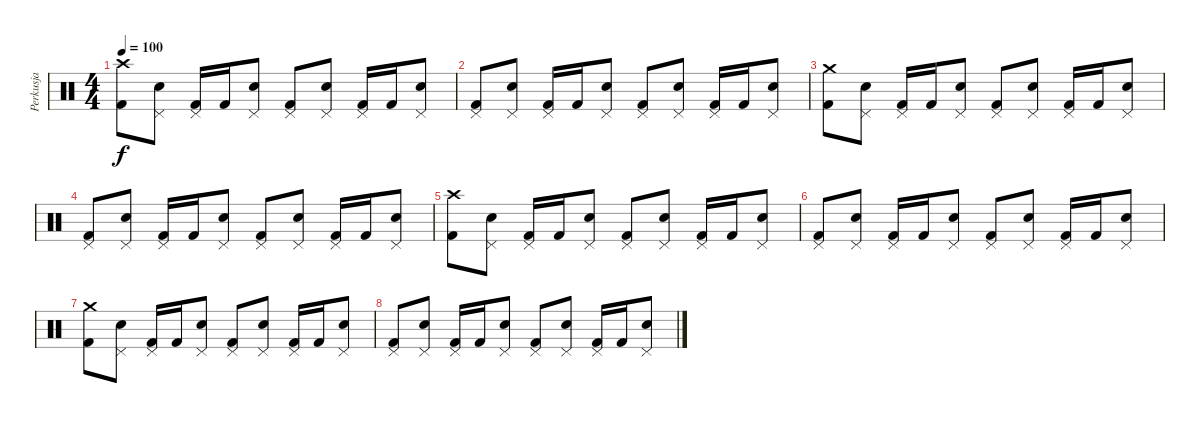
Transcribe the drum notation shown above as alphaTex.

\track ("Perkusja" "Perkusja") {instrument percussion}
\staff {score}
\articulation defaults
\ts (4 4)
\tempo 100
\clef neutral
\ks c
("Crash high (hit)" "Kick (hit) 2").8{dy f} ("Pedal Hi-Hat (hit)" "Snare (hit) 2").8 ("Pedal Hi-Hat (hit)" "Kick (hit) 2").16 "Kick (hit) 2".16 ("Pedal Hi-Hat (hit)" "Snare (hit) 2").8 ("Pedal Hi-Hat (hit)" "Kick (hit) 2").8 ("Pedal Hi-Hat (hit)" "Snare (hit) 2").8 ("Pedal Hi-Hat (hit)" "Kick (hit) 2").16 "Kick (hit) 2".16 ("Pedal Hi-Hat (hit)" "Snare (hit) 2").8 |
("Pedal Hi-Hat (hit)" "Kick (hit) 2").8 ("Pedal Hi-Hat (hit)" "Snare (hit) 2").8 ("Pedal Hi-Hat (hit)" "Kick (hit) 2").16 "Kick (hit) 2".16 ("Pedal Hi-Hat (hit)" "Snare (hit) 2").8 ("Pedal Hi-Hat (hit)" "Kick (hit) 2").8 ("Pedal Hi-Hat (hit)" "Snare (hit) 2").8 ("Pedal Hi-Hat (hit)" "Kick (hit) 2").16 "Kick (hit) 2".16 ("Pedal Hi-Hat (hit)" "Snare (hit) 2").8 |
("Crash medium (hit)" "Kick (hit) 2").8 ("Pedal Hi-Hat (hit)" "Snare (hit) 2").8 ("Pedal Hi-Hat (hit)" "Kick (hit) 2").16 "Kick (hit) 2".16 ("Pedal Hi-Hat (hit)" "Snare (hit) 2").8 ("Pedal Hi-Hat (hit)" "Kick (hit) 2").8 ("Pedal Hi-Hat (hit)" "Snare (hit) 2").8 ("Pedal Hi-Hat (hit)" "Kick (hit) 2").16 "Kick (hit) 2".16 ("Pedal Hi-Hat (hit)" "Snare (hit) 2").8 |
("Pedal Hi-Hat (hit)" "Kick (hit) 2").8 ("Pedal Hi-Hat (hit)" "Snare (hit) 2").8 ("Pedal Hi-Hat (hit)" "Kick (hit) 2").16 "Kick (hit) 2".16 ("Pedal Hi-Hat (hit)" "Snare (hit) 2").8 ("Pedal Hi-Hat (hit)" "Kick (hit) 2").8 ("Pedal Hi-Hat (hit)" "Snare (hit) 2").8 ("Pedal Hi-Hat (hit)" "Kick (hit) 2").16 "Kick (hit) 2".16 ("Pedal Hi-Hat (hit)" "Snare (hit) 2").8 |
("Crash high (hit)" "Kick (hit) 2").8 ("Pedal Hi-Hat (hit)" "Snare (hit) 2").8 ("Pedal Hi-Hat (hit)" "Kick (hit) 2").16 "Kick (hit) 2".16 ("Pedal Hi-Hat (hit)" "Snare (hit) 2").8 ("Pedal Hi-Hat (hit)" "Kick (hit) 2").8 ("Pedal Hi-Hat (hit)" "Snare (hit) 2").8 ("Pedal Hi-Hat (hit)" "Kick (hit) 2").16 "Kick (hit) 2".16 ("Pedal Hi-Hat (hit)" "Snare (hit) 2").8 |
("Pedal Hi-Hat (hit)" "Kick (hit) 2").8 ("Pedal Hi-Hat (hit)" "Snare (hit) 2").8 ("Pedal Hi-Hat (hit)" "Kick (hit) 2").16 "Kick (hit) 2".16 ("Pedal Hi-Hat (hit)" "Snare (hit) 2").8 ("Pedal Hi-Hat (hit)" "Kick (hit) 2").8 ("Pedal Hi-Hat (hit)" "Snare (hit) 2").8 ("Pedal Hi-Hat (hit)" "Kick (hit) 2").16 "Kick (hit) 2".16 ("Pedal Hi-Hat (hit)" "Snare (hit) 2").8 |
("Crash medium (hit)" "Kick (hit) 2").8 ("Pedal Hi-Hat (hit)" "Snare (hit) 2").8 ("Pedal Hi-Hat (hit)" "Kick (hit) 2").16 "Kick (hit) 2".16 ("Pedal Hi-Hat (hit)" "Snare (hit) 2").8 ("Pedal Hi-Hat (hit)" "Kick (hit) 2").8 ("Pedal Hi-Hat (hit)" "Snare (hit) 2").8 ("Pedal Hi-Hat (hit)" "Kick (hit) 2").16 "Kick (hit) 2".16 ("Pedal Hi-Hat (hit)" "Snare (hit) 2").8 |
("Pedal Hi-Hat (hit)" "Kick (hit) 2").8 ("Pedal Hi-Hat (hit)" "Snare (hit) 2").8 ("Pedal Hi-Hat (hit)" "Kick (hit) 2").16 "Kick (hit) 2".16 ("Pedal Hi-Hat (hit)" "Snare (hit) 2").8 ("Pedal Hi-Hat (hit)" "Kick (hit) 2").8 ("Pedal Hi-Hat (hit)" "Snare (hit) 2").8 ("Pedal Hi-Hat (hit)" "Kick (hit) 2").16 "Kick (hit) 2".16 ("Pedal Hi-Hat (hit)" "Snare (hit) 2").8
